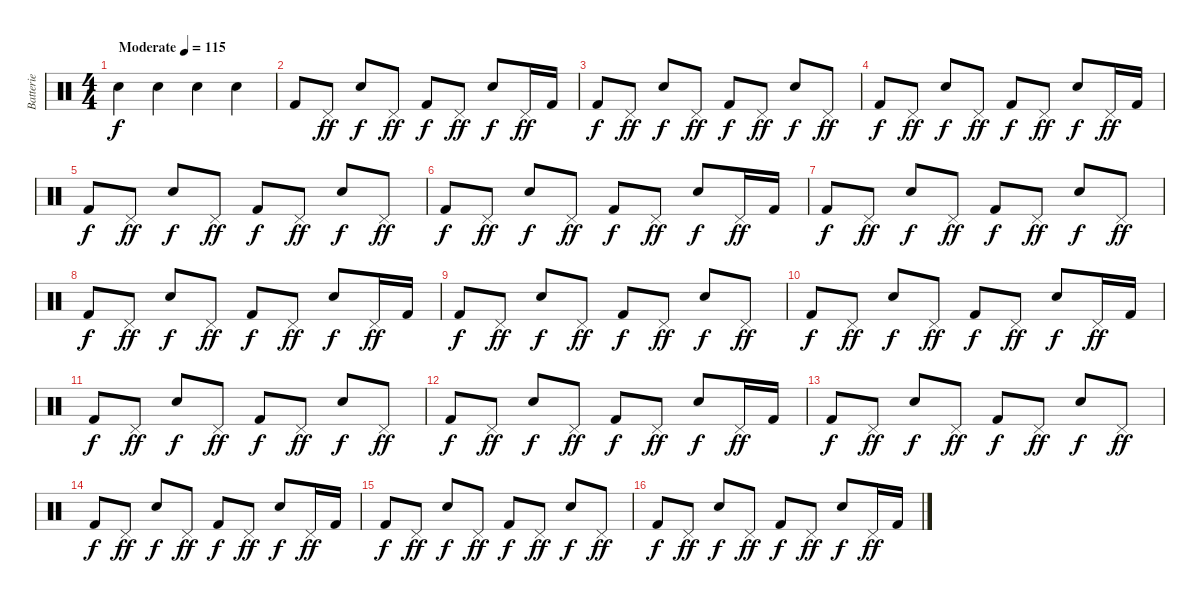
\track ("Batterie" "Batterie") {instrument percussion}
\staff {score}
\articulation defaults
\ts (4 4)
\tempo (115 "Moderate")
\clef neutral
\ks c "Electric Snare (hit)".4{dy f} "Electric Snare (hit)".4 "Electric Snare (hit)".4 "Electric Snare (hit)".4
|
"Kick (hit) 2".8 "Pedal Hi-Hat (hit)".8{dy ff} "Electric Snare (hit)".8{dy f} "Pedal Hi-Hat (hit)".8{dy ff} "Kick (hit) 2".8{dy f} "Pedal Hi-Hat (hit)".8{dy ff} "Electric Snare (hit)".8{dy f} "Pedal Hi-Hat (hit)".16{dy ff} "Kick (hit) 2".16 |
"Kick (hit) 2".8{dy f} "Pedal Hi-Hat (hit)".8{dy ff} "Electric Snare (hit)".8{dy f} "Pedal Hi-Hat (hit)".8{dy ff} "Kick (hit) 2".8{dy f} "Pedal Hi-Hat (hit)".8{dy ff} "Electric Snare (hit)".8{dy f} "Pedal Hi-Hat (hit)".8{dy ff} |
"Kick (hit) 2".8{dy f} "Pedal Hi-Hat (hit)".8{dy ff} "Electric Snare (hit)".8{dy f} "Pedal Hi-Hat (hit)".8{dy ff} "Kick (hit) 2".8{dy f} "Pedal Hi-Hat (hit)".8{dy ff} "Electric Snare (hit)".8{dy f} "Pedal Hi-Hat (hit)".16{dy ff} "Kick (hit) 2".16 |
"Kick (hit) 2".8{dy f} "Pedal Hi-Hat (hit)".8{dy ff} "Electric Snare (hit)".8{dy f} "Pedal Hi-Hat (hit)".8{dy ff} "Kick (hit) 2".8{dy f} "Pedal Hi-Hat (hit)".8{dy ff} "Electric Snare (hit)".8{dy f} "Pedal Hi-Hat (hit)".8{dy ff} |
"Kick (hit) 2".8{dy f} "Pedal Hi-Hat (hit)".8{dy ff} "Electric Snare (hit)".8{dy f} "Pedal Hi-Hat (hit)".8{dy ff} "Kick (hit) 2".8{dy f} "Pedal Hi-Hat (hit)".8{dy ff} "Electric Snare (hit)".8{dy f} "Pedal Hi-Hat (hit)".16{dy ff} "Kick (hit) 2".16 |
"Kick (hit) 2".8{dy f} "Pedal Hi-Hat (hit)".8{dy ff} "Electric Snare (hit)".8{dy f} "Pedal Hi-Hat (hit)".8{dy ff} "Kick (hit) 2".8{dy f} "Pedal Hi-Hat (hit)".8{dy ff} "Electric Snare (hit)".8{dy f} "Pedal Hi-Hat (hit)".8{dy ff} |
"Kick (hit) 2".8{dy f} "Pedal Hi-Hat (hit)".8{dy ff} "Electric Snare (hit)".8{dy f} "Pedal Hi-Hat (hit)".8{dy ff} "Kick (hit) 2".8{dy f} "Pedal Hi-Hat (hit)".8{dy ff} "Electric Snare (hit)".8{dy f} "Pedal Hi-Hat (hit)".16{dy ff} "Kick (hit) 2".16 |
"Kick (hit) 2".8{dy f} "Pedal Hi-Hat (hit)".8{dy ff} "Electric Snare (hit)".8{dy f} "Pedal Hi-Hat (hit)".8{dy ff} "Kick (hit) 2".8{dy f} "Pedal Hi-Hat (hit)".8{dy ff} "Electric Snare (hit)".8{dy f} "Pedal Hi-Hat (hit)".8{dy ff} |
"Kick (hit) 2".8{dy f} "Pedal Hi-Hat (hit)".8{dy ff} "Electric Snare (hit)".8{dy f} "Pedal Hi-Hat (hit)".8{dy ff} "Kick (hit) 2".8{dy f} "Pedal Hi-Hat (hit)".8{dy ff} "Electric Snare (hit)".8{dy f} "Pedal Hi-Hat (hit)".16{dy ff} "Kick (hit) 2".16 |
"Kick (hit) 2".8{dy f} "Pedal Hi-Hat (hit)".8{dy ff} "Electric Snare (hit)".8{dy f} "Pedal Hi-Hat (hit)".8{dy ff} "Kick (hit) 2".8{dy f} "Pedal Hi-Hat (hit)".8{dy ff} "Electric Snare (hit)".8{dy f} "Pedal Hi-Hat (hit)".8{dy ff} |
"Kick (hit) 2".8{dy f} "Pedal Hi-Hat (hit)".8{dy ff} "Electric Snare (hit)".8{dy f} "Pedal Hi-Hat (hit)".8{dy ff} "Kick (hit) 2".8{dy f} "Pedal Hi-Hat (hit)".8{dy ff} "Electric Snare (hit)".8{dy f} "Pedal Hi-Hat (hit)".16{dy ff} "Kick (hit) 2".16 |
"Kick (hit) 2".8{dy f} "Pedal Hi-Hat (hit)".8{dy ff} "Electric Snare (hit)".8{dy f} "Pedal Hi-Hat (hit)".8{dy ff} "Kick (hit) 2".8{dy f} "Pedal Hi-Hat (hit)".8{dy ff} "Electric Snare (hit)".8{dy f} "Pedal Hi-Hat (hit)".8{dy ff} |
"Kick (hit) 2".8{dy f} "Pedal Hi-Hat (hit)".8{dy ff} "Electric Snare (hit)".8{dy f} "Pedal Hi-Hat (hit)".8{dy ff} "Kick (hit) 2".8{dy f} "Pedal Hi-Hat (hit)".8{dy ff} "Electric Snare (hit)".8{dy f} "Pedal Hi-Hat (hit)".16{dy ff} "Kick (hit) 2".16 |
"Kick (hit) 2".8{dy f} "Pedal Hi-Hat (hit)".8{dy ff} "Electric Snare (hit)".8{dy f} "Pedal Hi-Hat (hit)".8{dy ff} "Kick (hit) 2".8{dy f} "Pedal Hi-Hat (hit)".8{dy ff} "Electric Snare (hit)".8{dy f} "Pedal Hi-Hat (hit)".8{dy ff} |
"Kick (hit) 2".8{dy f} "Pedal Hi-Hat (hit)".8{dy ff} "Electric Snare (hit)".8{dy f} "Pedal Hi-Hat (hit)".8{dy ff} "Kick (hit) 2".8{dy f} "Pedal Hi-Hat (hit)".8{dy ff} "Electric Snare (hit)".8{dy f} "Pedal Hi-Hat (hit)".16{dy ff} "Kick (hit) 2".16
